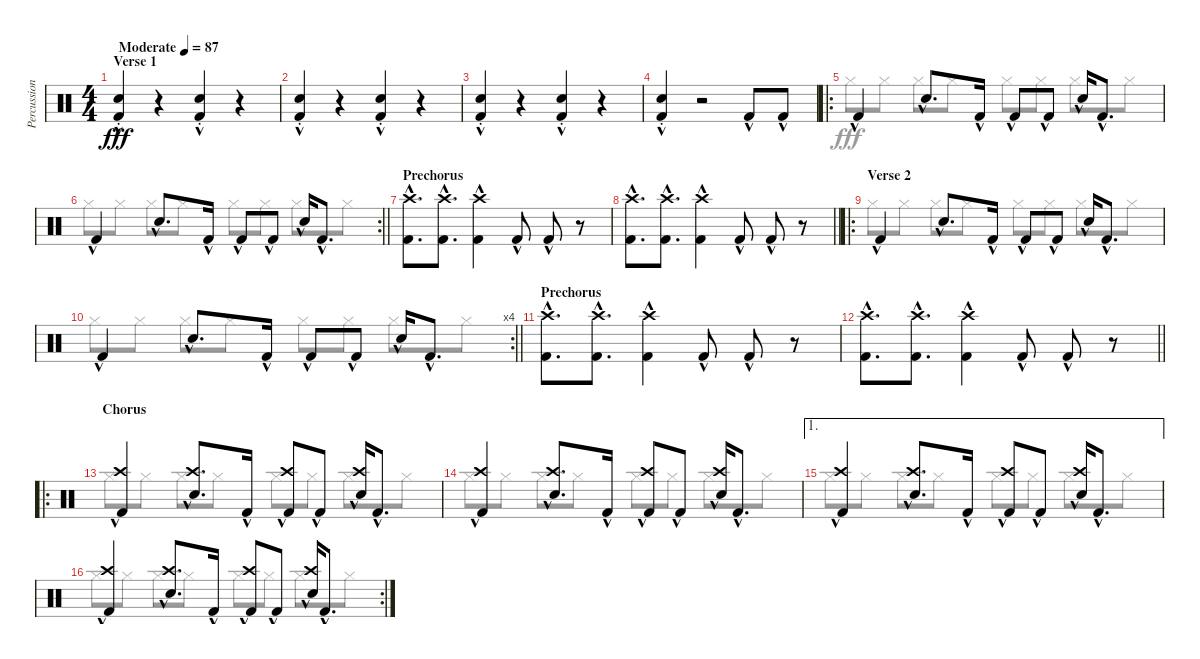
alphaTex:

\track ("Percussion" "Percussion") {instrument percussion}
\staff {score}
\articulation defaults
\voice
\ts (4 4)
\section ("" "Verse 1")
\tempo (87 "Moderate")
\clef neutral
\ks c
("Snare (hit) 2"{hac st} "Kick (hit) 2"{hac st}).4{dy fff} r.4 ("Snare (hit) 2"{hac st} "Kick (hit) 2"{hac st}).4 r.4 |
("Snare (hit) 2"{hac st} "Kick (hit) 2"{hac st}).4 r.4 ("Snare (hit) 2"{hac st} "Kick (hit) 2"{hac st}).4 r.4 |
("Snare (hit) 2"{hac st} "Kick (hit) 2"{hac st}).4 r.4 ("Snare (hit) 2"{hac st} "Kick (hit) 2"{hac st}).4 r.4 |
("Snare (hit) 2"{hac st} "Kick (hit) 2"{hac st}).4 r.2 "Kick (hit) 2"{hac}.8 "Kick (hit) 2"{hac}.8 |
\ro "Kick (hit) 2"{hac}.4 "Snare (hit) 2"{hac}.8{d} "Kick (hit) 2"{hac}.16 "Kick (hit) 2"{hac}.8 "Kick (hit) 2"{hac}.8 "Snare (hit) 2"{hac}.16 "Kick (hit) 2"{hac}.8{d}
|
\rc 2
\barLineRight lightlight "Kick (hit) 2"{hac}.4 "Snare (hit) 2"{hac}.8{d} "Kick (hit) 2"{hac}.16 "Kick (hit) 2"{hac}.8 "Kick (hit) 2"{hac}.8 "Snare (hit) 2"{hac}.16 "Kick (hit) 2"{hac}.8{d}
|
\section ("" "Prechorus")
("Crash high (hit)" "Kick (hit) 2"{hac}).8{d} ("Crash high (hit)" "Kick (hit) 2"{hac}).8{d} ("Crash high (hit)" "Kick (hit) 2"{hac}).4 "Kick (hit) 2"{hac}.8 "Kick (hit) 2"{hac}.8 r.8 |
\barLineRight lightlight
("Crash high (hit)" "Kick (hit) 2"{hac}).8{d} ("Crash high (hit)" "Kick (hit) 2"{hac}).8{d} ("Crash high (hit)" "Kick (hit) 2"{hac}).4 "Kick (hit) 2"{hac}.8 "Kick (hit) 2"{hac}.8 r.8 |
\ro
\section ("" "Verse 2")
"Kick (hit) 2"{hac}.4 "Snare (hit) 2"{hac}.8{d} "Kick (hit) 2"{hac}.16 "Kick (hit) 2"{hac}.8 "Kick (hit) 2"{hac}.8 "Snare (hit) 2"{hac}.16 "Kick (hit) 2"{hac}.8{d} |
\rc 4
\barLineRight lightlight "Kick (hit) 2"{hac}.4 "Snare (hit) 2"{hac}.8{d} "Kick (hit) 2"{hac}.16 "Kick (hit) 2"{hac}.8 "Kick (hit) 2"{hac}.8 "Snare (hit) 2"{hac}.16 "Kick (hit) 2"{hac}.8{d}
|
\section ("" "Prechorus")
("Crash high (hit)" "Kick (hit) 2"{hac}).8{d} ("Crash high (hit)" "Kick (hit) 2"{hac}).8{d} ("Crash high (hit)" "Kick (hit) 2"{hac}).4 "Kick (hit) 2"{hac}.8 "Kick (hit) 2"{hac}.8 r.8 |
\barLineRight lightlight
("Crash high (hit)" "Kick (hit) 2"{hac}).8{d} ("Crash high (hit)" "Kick (hit) 2"{hac}).8{d} ("Crash high (hit)" "Kick (hit) 2"{hac}).4 "Kick (hit) 2"{hac}.8 "Kick (hit) 2"{hac}.8 r.8 |
\ro
\section ("" "Chorus")
("Crash high (hit)" "Kick (hit) 2"{hac}).4 ("Crash high (hit)" "Snare (hit) 2"{hac}).8{d} "Kick (hit) 2"{hac}.16 ("Crash high (hit)" "Kick (hit) 2"{hac}).8 "Kick (hit) 2"{hac}.8 ("Crash high (hit)" "Snare (hit) 2"{hac}).16 "Kick (hit) 2"{hac}.8{d} |
("Crash high (hit)" "Kick (hit) 2"{hac}).4 ("Crash high (hit)" "Snare (hit) 2"{hac}).8{d} "Kick (hit) 2"{hac}.16 ("Crash high (hit)" "Kick (hit) 2"{hac}).8 "Kick (hit) 2"{hac}.8 ("Crash high (hit)" "Snare (hit) 2"{hac}).16 "Kick (hit) 2"{hac}.8{d} |
\ae 1
("Crash high (hit)" "Kick (hit) 2"{hac}).4 ("Crash high (hit)" "Snare (hit) 2"{hac}).8{d} "Kick (hit) 2"{hac}.16 ("Crash high (hit)" "Kick (hit) 2"{hac}).8 "Kick (hit) 2"{hac}.8 ("Crash high (hit)" "Snare (hit) 2"{hac}).16 "Kick (hit) 2"{hac}.8{d} |
\rc 2
("Crash high (hit)" "Kick (hit) 2"{hac}).4 ("Crash high (hit)" "Snare (hit) 2"{hac}).8{d} "Kick (hit) 2"{hac}.16 ("Crash high (hit)" "Kick (hit) 2"{hac}).8 "Kick (hit) 2"{hac}.8 ("Crash high (hit)" "Snare (hit) 2"{hac}).16 "Kick (hit) 2"{hac}.8{d}
\voice
\clef neutral
\ottava regular
\simile none
\ks c
|
|
|
|
"Hi-Hat (closed)".8 "Hi-Hat (closed)".8 "Hi-Hat (closed)".8 "Hi-Hat (closed)".8 "Hi-Hat (closed)".8 "Hi-Hat (closed)".8 "Hi-Hat (closed)".8 "Hi-Hat (closed)".8 |
\barLineRight lightlight "Hi-Hat (closed)".8 "Hi-Hat (closed)".8 "Hi-Hat (closed)".8 "Hi-Hat (closed)".8 "Hi-Hat (closed)".8 "Hi-Hat (closed)".8 "Hi-Hat (closed)".8 "Hi-Hat (closed)".8
|
|
\barLineRight lightlight
|
"Hi-Hat (closed)".8 "Hi-Hat (closed)".8 "Hi-Hat (closed)".8 "Hi-Hat (closed)".8 "Hi-Hat (closed)".8 "Hi-Hat (closed)".8 "Hi-Hat (closed)".8 "Hi-Hat (closed)".8 |
\barLineRight lightlight "Hi-Hat (closed)".8 "Hi-Hat (closed)".8 "Hi-Hat (closed)".8 "Hi-Hat (closed)".8 "Hi-Hat (closed)".8 "Hi-Hat (closed)".8 "Hi-Hat (closed)".8 "Hi-Hat (closed)".8
|
|
\barLineRight lightlight
|
"Hi-Hat (closed)".8 "Hi-Hat (closed)".8 "Hi-Hat (closed)".8 "Hi-Hat (closed)".8 "Hi-Hat (closed)".8 "Hi-Hat (closed)".8 "Hi-Hat (closed)".8 "Hi-Hat (closed)".8 |
"Hi-Hat (closed)".8 "Hi-Hat (closed)".8 "Hi-Hat (closed)".8 "Hi-Hat (closed)".8 "Hi-Hat (closed)".8 "Hi-Hat (closed)".8 "Hi-Hat (closed)".8 "Hi-Hat (closed)".8 |
"Hi-Hat (closed)".8 "Hi-Hat (closed)".8 "Hi-Hat (closed)".8 "Hi-Hat (closed)".8 "Hi-Hat (closed)".8 "Hi-Hat (closed)".8 "Hi-Hat (closed)".8 "Hi-Hat (closed)".8 |
"Hi-Hat (closed)".8 "Hi-Hat (closed)".8 "Hi-Hat (closed)".8 "Hi-Hat (closed)".8 "Hi-Hat (closed)".8 "Hi-Hat (closed)".8 "Hi-Hat (closed)".8 "Hi-Hat (closed)".8
